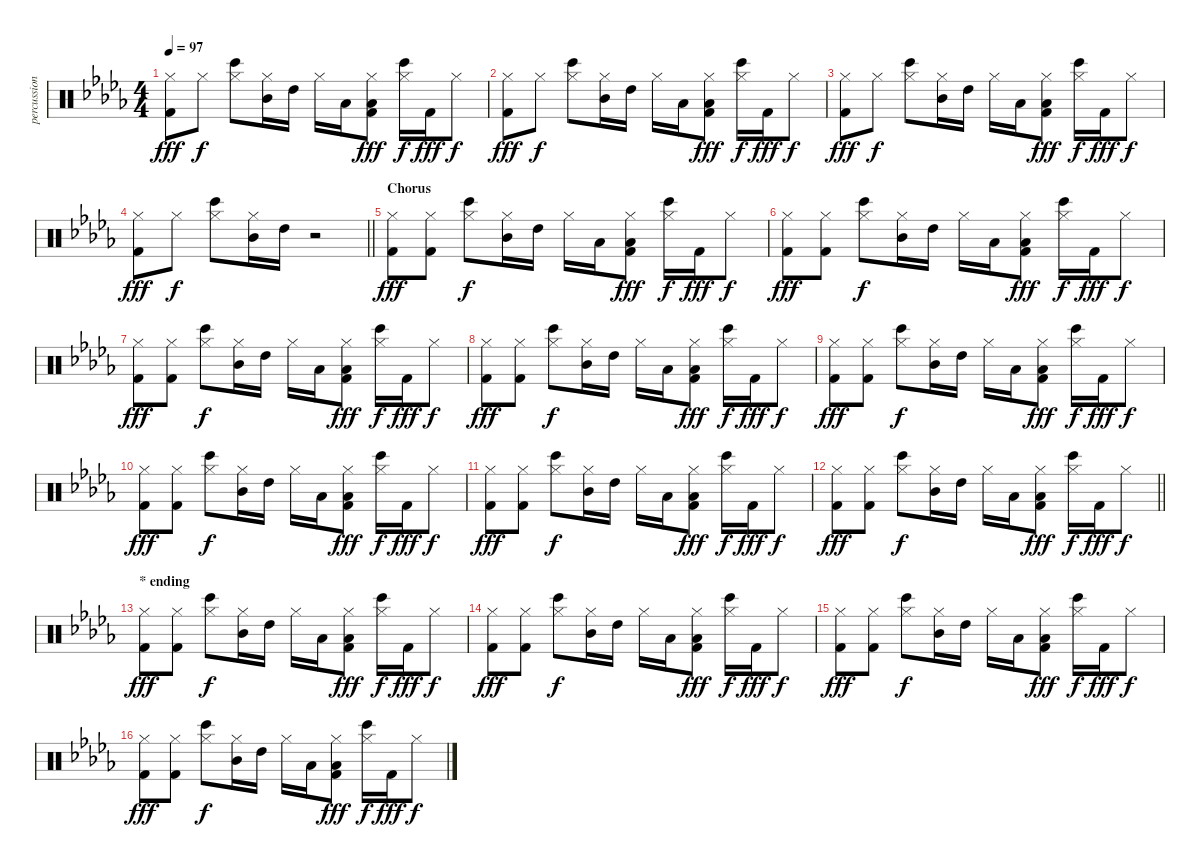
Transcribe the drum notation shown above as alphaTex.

\track ("percussion" "percussion") {instrument percussion}
\staff {score}
\articulation defaults
\ts (4 4)
\tempo 97
\clef neutral
\ks bbminor
("Hi-Hat (closed)" "Kick (hit) 2").8{dy fff} "Hi-Hat (closed)".8{dy f} ("Bongo High (hit)" "Hi-Hat (closed)").8 ("Mid Tom (hit)" "Hi-Hat (closed)").16 "High Tom (hit)".16 "Hi-Hat (closed)".16 "Low Tom (hit)".16 ("Low Tom (hit)" "Hi-Hat (closed)" "Kick (hit) 2").8{dy fff} ("Bongo High (hit)" "Hi-Hat (closed)").16{dy f} "Kick (hit) 2".16{dy fff} "Hi-Hat (closed)".8{dy f} |
("Hi-Hat (closed)" "Kick (hit) 2").8{dy fff} "Hi-Hat (closed)".8{dy f} ("Bongo High (hit)" "Hi-Hat (closed)").8 ("Mid Tom (hit)" "Hi-Hat (closed)").16 "High Tom (hit)".16 "Hi-Hat (closed)".16 "Low Tom (hit)".16 ("Low Tom (hit)" "Hi-Hat (closed)" "Kick (hit) 2").8{dy fff} ("Bongo High (hit)" "Hi-Hat (closed)").16{dy f} "Kick (hit) 2".16{dy fff} "Hi-Hat (closed)".8{dy f} |
("Hi-Hat (closed)" "Kick (hit) 2").8{dy fff} "Hi-Hat (closed)".8{dy f} ("Bongo High (hit)" "Hi-Hat (closed)").8 ("Mid Tom (hit)" "Hi-Hat (closed)").16 "High Tom (hit)".16 "Hi-Hat (closed)".16 "Low Tom (hit)".16 ("Low Tom (hit)" "Hi-Hat (closed)" "Kick (hit) 2").8{dy fff} ("Bongo High (hit)" "Hi-Hat (closed)").16{dy f} "Kick (hit) 2".16{dy fff} "Hi-Hat (closed)".8{dy f} |
\barLineRight lightlight
("Hi-Hat (closed)" "Kick (hit) 2").8{dy fff} "Hi-Hat (closed)".8{dy f} ("Bongo High (hit)" "Hi-Hat (closed)").8 ("Mid Tom (hit)" "Hi-Hat (closed)").16 "High Tom (hit)".16 r.2 |
\section ("" "Chorus")
("Hi-Hat (closed)" "Kick (hit) 2").8{dy fff} ("Hi-Hat (closed)" "Kick (hit) 2").8 ("Bongo High (hit)" "Hi-Hat (closed)").8{dy f} ("Mid Tom (hit)" "Hi-Hat (closed)").16 "High Tom (hit)".16 "Hi-Hat (closed)".16 "Low Tom (hit)".16 ("Low Tom (hit)" "Hi-Hat (closed)" "Kick (hit) 2").8{dy fff} ("Bongo High (hit)" "Hi-Hat (closed)").16{dy f} "Kick (hit) 2".16{dy fff} "Hi-Hat (closed)".8{dy f} |
("Hi-Hat (closed)" "Kick (hit) 2").8{dy fff} ("Hi-Hat (closed)" "Kick (hit) 2").8 ("Bongo High (hit)" "Hi-Hat (closed)").8{dy f} ("Mid Tom (hit)" "Hi-Hat (closed)").16 "High Tom (hit)".16 "Hi-Hat (closed)".16 "Low Tom (hit)".16 ("Low Tom (hit)" "Hi-Hat (closed)" "Kick (hit) 2").8{dy fff} ("Bongo High (hit)" "Hi-Hat (closed)").16{dy f} "Kick (hit) 2".16{dy fff} "Hi-Hat (closed)".8{dy f} |
("Hi-Hat (closed)" "Kick (hit) 2").8{dy fff} ("Hi-Hat (closed)" "Kick (hit) 2").8 ("Bongo High (hit)" "Hi-Hat (closed)").8{dy f} ("Mid Tom (hit)" "Hi-Hat (closed)").16 "High Tom (hit)".16 "Hi-Hat (closed)".16 "Low Tom (hit)".16 ("Low Tom (hit)" "Hi-Hat (closed)" "Kick (hit) 2").8{dy fff} ("Bongo High (hit)" "Hi-Hat (closed)").16{dy f} "Kick (hit) 2".16{dy fff} "Hi-Hat (closed)".8{dy f} |
("Hi-Hat (closed)" "Kick (hit) 2").8{dy fff} ("Hi-Hat (closed)" "Kick (hit) 2").8 ("Bongo High (hit)" "Hi-Hat (closed)").8{dy f} ("Mid Tom (hit)" "Hi-Hat (closed)").16 "High Tom (hit)".16 "Hi-Hat (closed)".16 "Low Tom (hit)".16 ("Low Tom (hit)" "Hi-Hat (closed)" "Kick (hit) 2").8{dy fff} ("Bongo High (hit)" "Hi-Hat (closed)").16{dy f} "Kick (hit) 2".16{dy fff} "Hi-Hat (closed)".8{dy f} |
("Hi-Hat (closed)" "Kick (hit) 2").8{dy fff} ("Hi-Hat (closed)" "Kick (hit) 2").8 ("Bongo High (hit)" "Hi-Hat (closed)").8{dy f} ("Mid Tom (hit)" "Hi-Hat (closed)").16 "High Tom (hit)".16 "Hi-Hat (closed)".16 "Low Tom (hit)".16 ("Low Tom (hit)" "Hi-Hat (closed)" "Kick (hit) 2").8{dy fff} ("Bongo High (hit)" "Hi-Hat (closed)").16{dy f} "Kick (hit) 2".16{dy fff} "Hi-Hat (closed)".8{dy f} |
("Hi-Hat (closed)" "Kick (hit) 2").8{dy fff} ("Hi-Hat (closed)" "Kick (hit) 2").8 ("Bongo High (hit)" "Hi-Hat (closed)").8{dy f} ("Mid Tom (hit)" "Hi-Hat (closed)").16 "High Tom (hit)".16 "Hi-Hat (closed)".16 "Low Tom (hit)".16 ("Low Tom (hit)" "Hi-Hat (closed)" "Kick (hit) 2").8{dy fff} ("Bongo High (hit)" "Hi-Hat (closed)").16{dy f} "Kick (hit) 2".16{dy fff} "Hi-Hat (closed)".8{dy f} |
("Hi-Hat (closed)" "Kick (hit) 2").8{dy fff} ("Hi-Hat (closed)" "Kick (hit) 2").8 ("Bongo High (hit)" "Hi-Hat (closed)").8{dy f} ("Mid Tom (hit)" "Hi-Hat (closed)").16 "High Tom (hit)".16 "Hi-Hat (closed)".16 "Low Tom (hit)".16 ("Low Tom (hit)" "Hi-Hat (closed)" "Kick (hit) 2").8{dy fff} ("Bongo High (hit)" "Hi-Hat (closed)").16{dy f} "Kick (hit) 2".16{dy fff} "Hi-Hat (closed)".8{dy f} |
\barLineRight lightlight
("Hi-Hat (closed)" "Kick (hit) 2").8{dy fff} ("Hi-Hat (closed)" "Kick (hit) 2").8 ("Bongo High (hit)" "Hi-Hat (closed)").8{dy f} ("Mid Tom (hit)" "Hi-Hat (closed)").16 "High Tom (hit)".16 "Hi-Hat (closed)".16 "Low Tom (hit)".16 ("Low Tom (hit)" "Hi-Hat (closed)" "Kick (hit) 2").8{dy fff} ("Bongo High (hit)" "Hi-Hat (closed)").16{dy f} "Kick (hit) 2".16{dy fff} "Hi-Hat (closed)".8{dy f} |
\section ("" "* ending")
("Hi-Hat (closed)" "Kick (hit) 2").8{dy fff} ("Hi-Hat (closed)" "Kick (hit) 2").8 ("Bongo High (hit)" "Hi-Hat (closed)").8{dy f} ("Mid Tom (hit)" "Hi-Hat (closed)").16 "High Tom (hit)".16 "Hi-Hat (closed)".16 "Low Tom (hit)".16 ("Low Tom (hit)" "Hi-Hat (closed)" "Kick (hit) 2").8{dy fff} ("Bongo High (hit)" "Hi-Hat (closed)").16{dy f} "Kick (hit) 2".16{dy fff} "Hi-Hat (closed)".8{dy f} |
("Hi-Hat (closed)" "Kick (hit) 2").8{dy fff} ("Hi-Hat (closed)" "Kick (hit) 2").8 ("Bongo High (hit)" "Hi-Hat (closed)").8{dy f} ("Mid Tom (hit)" "Hi-Hat (closed)").16 "High Tom (hit)".16 "Hi-Hat (closed)".16 "Low Tom (hit)".16 ("Low Tom (hit)" "Hi-Hat (closed)" "Kick (hit) 2").8{dy fff} ("Bongo High (hit)" "Hi-Hat (closed)").16{dy f} "Kick (hit) 2".16{dy fff} "Hi-Hat (closed)".8{dy f} |
("Hi-Hat (closed)" "Kick (hit) 2").8{dy fff} ("Hi-Hat (closed)" "Kick (hit) 2").8 ("Bongo High (hit)" "Hi-Hat (closed)").8{dy f} ("Mid Tom (hit)" "Hi-Hat (closed)").16 "High Tom (hit)".16 "Hi-Hat (closed)".16 "Low Tom (hit)".16 ("Low Tom (hit)" "Hi-Hat (closed)" "Kick (hit) 2").8{dy fff} ("Bongo High (hit)" "Hi-Hat (closed)").16{dy f} "Kick (hit) 2".16{dy fff} "Hi-Hat (closed)".8{dy f} |
("Hi-Hat (closed)" "Kick (hit) 2").8{dy fff} ("Hi-Hat (closed)" "Kick (hit) 2").8 ("Bongo High (hit)" "Hi-Hat (closed)").8{dy f} ("Mid Tom (hit)" "Hi-Hat (closed)").16 "High Tom (hit)".16 "Hi-Hat (closed)".16 "Low Tom (hit)".16 ("Low Tom (hit)" "Hi-Hat (closed)" "Kick (hit) 2").8{dy fff} ("Bongo High (hit)" "Hi-Hat (closed)").16{dy f} "Kick (hit) 2".16{dy fff} "Hi-Hat (closed)".8{dy f}
